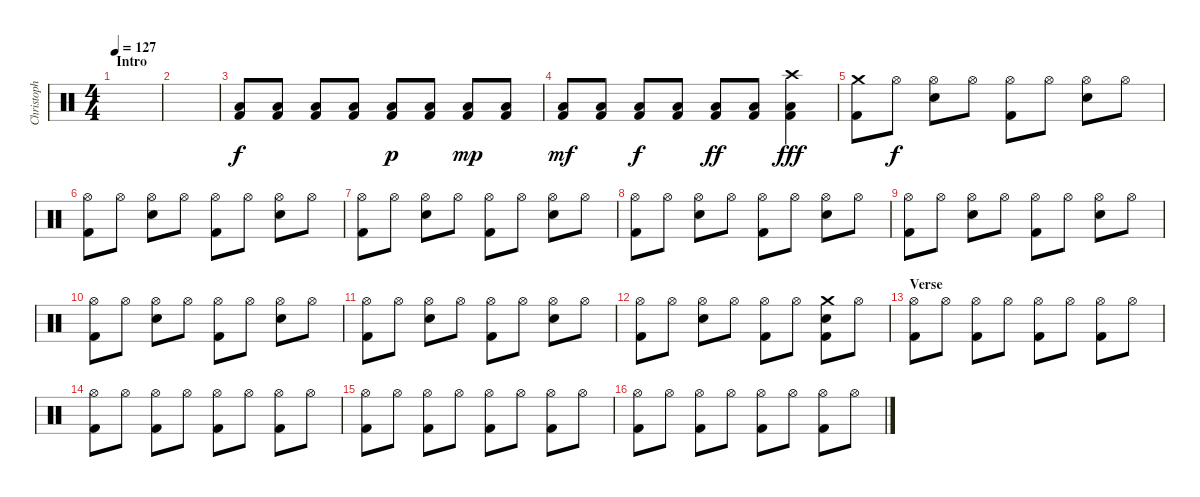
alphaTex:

\track ("Christoph Doom Schneider - Drums" "Christoph ") {instrument percussion}
\staff {score}
\articulation defaults
\ts (4 4)
\section ("" "Intro")
\tempo 127
\clef neutral
\ks c
|
|
("Low Floor Tom (hit)" "Kick (hit) 2").8 ("Low Floor Tom (hit)" "Kick (hit) 2").8 ("Low Floor Tom (hit)" "Kick (hit) 2").8 ("Low Floor Tom (hit)" "Kick (hit) 2").8 ("Low Floor Tom (hit)" "Kick (hit) 2").8{dy p} ("Low Floor Tom (hit)" "Kick (hit) 2").8 ("Low Floor Tom (hit)" "Kick (hit) 2").8{dy mp} ("Low Floor Tom (hit)" "Kick (hit) 2").8 |
("Low Floor Tom (hit)" "Kick (hit) 2").8{dy mf} ("Low Floor Tom (hit)" "Kick (hit) 2").8 ("Low Floor Tom (hit)" "Kick (hit) 2").8{dy f} ("Low Floor Tom (hit)" "Kick (hit) 2").8 ("Low Floor Tom (hit)" "Kick (hit) 2").8{dy ff} ("Low Floor Tom (hit)" "Kick (hit) 2").8 ("Crash high (hit)" "Low Floor Tom (hit)" "Kick (hit) 2").4{dy fff} |
("Crash medium (hit)" "Kick (hit) 2").8 "Hi-Hat (open)".8{dy f} ("Hi-Hat (open)" "Electric Snare (hit)").8 "Hi-Hat (open)".8 ("Hi-Hat (open)" "Kick (hit) 2").8 "Hi-Hat (open)".8 ("Hi-Hat (open)" "Electric Snare (hit)").8 "Hi-Hat (open)".8 |
("Hi-Hat (open)" "Kick (hit) 2").8 "Hi-Hat (open)".8 ("Hi-Hat (open)" "Electric Snare (hit)").8 "Hi-Hat (open)".8 ("Hi-Hat (open)" "Kick (hit) 2").8 "Hi-Hat (open)".8 ("Hi-Hat (open)" "Electric Snare (hit)").8 "Hi-Hat (open)".8 |
("Hi-Hat (open)" "Kick (hit) 2").8 "Hi-Hat (open)".8 ("Hi-Hat (open)" "Electric Snare (hit)").8 "Hi-Hat (open)".8 ("Hi-Hat (open)" "Kick (hit) 2").8 "Hi-Hat (open)".8 ("Hi-Hat (open)" "Electric Snare (hit)").8 "Hi-Hat (open)".8 |
("Hi-Hat (open)" "Kick (hit) 2").8 "Hi-Hat (open)".8 ("Hi-Hat (open)" "Electric Snare (hit)").8 "Hi-Hat (open)".8 ("Hi-Hat (open)" "Kick (hit) 2").8 "Hi-Hat (open)".8 ("Hi-Hat (open)" "Electric Snare (hit)").8 "Hi-Hat (open)".8 |
("Hi-Hat (open)" "Kick (hit) 2").8 "Hi-Hat (open)".8 ("Hi-Hat (open)" "Electric Snare (hit)").8 "Hi-Hat (open)".8 ("Hi-Hat (open)" "Kick (hit) 2").8 "Hi-Hat (open)".8 ("Hi-Hat (open)" "Electric Snare (hit)").8 "Hi-Hat (open)".8 |
("Hi-Hat (open)" "Kick (hit) 2").8 "Hi-Hat (open)".8 ("Hi-Hat (open)" "Electric Snare (hit)").8 "Hi-Hat (open)".8 ("Hi-Hat (open)" "Kick (hit) 2").8 "Hi-Hat (open)".8 ("Hi-Hat (open)" "Electric Snare (hit)").8 "Hi-Hat (open)".8 |
("Hi-Hat (open)" "Kick (hit) 2").8 "Hi-Hat (open)".8 ("Hi-Hat (open)" "Electric Snare (hit)").8 "Hi-Hat (open)".8 ("Hi-Hat (open)" "Kick (hit) 2").8 "Hi-Hat (open)".8 ("Hi-Hat (open)" "Electric Snare (hit)").8 "Hi-Hat (open)".8 |
("Hi-Hat (open)" "Kick (hit) 2").8 "Hi-Hat (open)".8 ("Hi-Hat (open)" "Electric Snare (hit)").8 "Hi-Hat (open)".8 ("Hi-Hat (open)" "Kick (hit) 2").8 "Hi-Hat (open)".8 ("Crash medium (hit)" "Electric Snare (hit)" "Kick (hit) 2").8 "Hi-Hat (open)".8 |
\section ("" "Verse")
("Hi-Hat (open)" "Kick (hit) 2").8 "Hi-Hat (open)".8 ("Hi-Hat (open)" "Kick (hit) 2").8 "Hi-Hat (open)".8 ("Hi-Hat (open)" "Kick (hit) 2").8 "Hi-Hat (open)".8 ("Hi-Hat (open)" "Kick (hit) 2").8 "Hi-Hat (open)".8 |
("Hi-Hat (open)" "Kick (hit) 2").8 "Hi-Hat (open)".8 ("Hi-Hat (open)" "Kick (hit) 2").8 "Hi-Hat (open)".8 ("Hi-Hat (open)" "Kick (hit) 2").8 "Hi-Hat (open)".8 ("Hi-Hat (open)" "Kick (hit) 2").8 "Hi-Hat (open)".8 |
("Hi-Hat (open)" "Kick (hit) 2").8 "Hi-Hat (open)".8 ("Hi-Hat (open)" "Kick (hit) 2").8 "Hi-Hat (open)".8 ("Hi-Hat (open)" "Kick (hit) 2").8 "Hi-Hat (open)".8 ("Hi-Hat (open)" "Kick (hit) 2").8 "Hi-Hat (open)".8 |
("Hi-Hat (open)" "Kick (hit) 2").8 "Hi-Hat (open)".8 ("Hi-Hat (open)" "Kick (hit) 2").8 "Hi-Hat (open)".8 ("Hi-Hat (open)" "Kick (hit) 2").8 "Hi-Hat (open)".8 ("Hi-Hat (open)" "Kick (hit) 2").8 "Hi-Hat (open)".8
